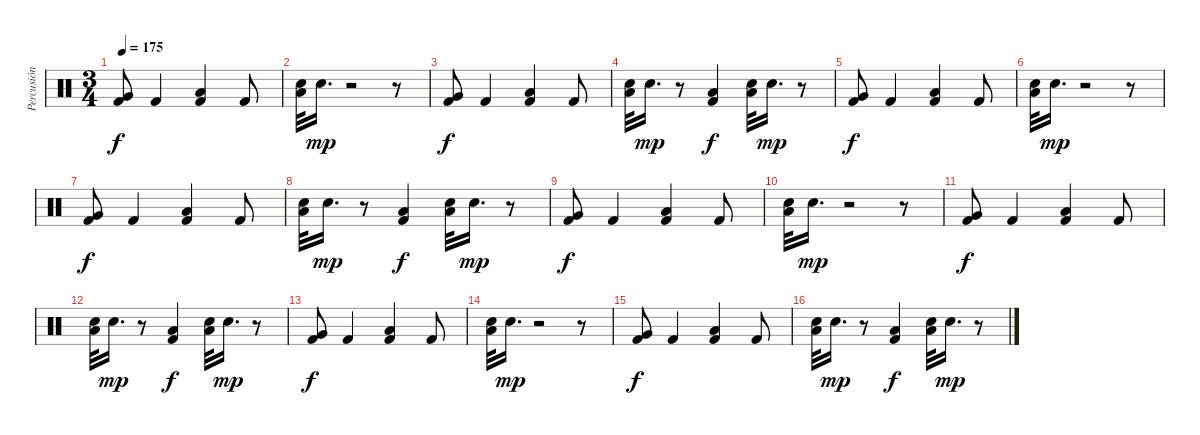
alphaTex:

\track ("Percusión" "Percusión") {instrument percussion}
\staff {score}
\articulation defaults
\ts (3 4)
\tempo 175
\clef neutral
\ks c
("Very Low Tom (hit)" "Kick (hit) 2").8{dy f} "Kick (hit) 2".4 ("Low Tom (hit)" "Kick (hit) 2").4 "Kick (hit) 2".8 |
("Low Floor Tom (hit)" "Snare (hit) 2").32 "Snare (hit) 2".16{d dy mp} r.2 r.8 |
("Very Low Tom (hit)" "Kick (hit) 2").8{dy f} "Kick (hit) 2".4 ("Low Tom (hit)" "Kick (hit) 2").4 "Kick (hit) 2".8 |
("Low Floor Tom (hit)" "Snare (hit) 2").32 "Snare (hit) 2".16{d dy mp} r.8 ("Low Tom (hit)" "Kick (hit) 2").4{dy f} ("Low Floor Tom (hit)" "Snare (hit) 2").32 "Snare (hit) 2".16{d dy mp} r.8 |
("Very Low Tom (hit)" "Kick (hit) 2").8{dy f} "Kick (hit) 2".4 ("Low Tom (hit)" "Kick (hit) 2").4 "Kick (hit) 2".8 |
("Low Floor Tom (hit)" "Snare (hit) 2").32 "Snare (hit) 2".16{d dy mp} r.2 r.8 |
("Very Low Tom (hit)" "Kick (hit) 2").8{dy f} "Kick (hit) 2".4 ("Low Tom (hit)" "Kick (hit) 2").4 "Kick (hit) 2".8 |
("Low Floor Tom (hit)" "Snare (hit) 2").32 "Snare (hit) 2".16{d dy mp} r.8 ("Low Tom (hit)" "Kick (hit) 2").4{dy f} ("Low Floor Tom (hit)" "Snare (hit) 2").32 "Snare (hit) 2".16{d dy mp} r.8 |
("Very Low Tom (hit)" "Kick (hit) 2").8{dy f} "Kick (hit) 2".4 ("Low Tom (hit)" "Kick (hit) 2").4 "Kick (hit) 2".8 |
("Low Floor Tom (hit)" "Snare (hit) 2").32 "Snare (hit) 2".16{d dy mp} r.2 r.8 |
("Very Low Tom (hit)" "Kick (hit) 2").8{dy f} "Kick (hit) 2".4 ("Low Tom (hit)" "Kick (hit) 2").4 "Kick (hit) 2".8 |
("Low Floor Tom (hit)" "Snare (hit) 2").32 "Snare (hit) 2".16{d dy mp} r.8 ("Low Tom (hit)" "Kick (hit) 2").4{dy f} ("Low Floor Tom (hit)" "Snare (hit) 2").32 "Snare (hit) 2".16{d dy mp} r.8 |
("Very Low Tom (hit)" "Kick (hit) 2").8{dy f} "Kick (hit) 2".4 ("Low Tom (hit)" "Kick (hit) 2").4 "Kick (hit) 2".8 |
("Low Floor Tom (hit)" "Snare (hit) 2").32 "Snare (hit) 2".16{d dy mp} r.2 r.8 |
("Very Low Tom (hit)" "Kick (hit) 2").8{dy f} "Kick (hit) 2".4 ("Low Tom (hit)" "Kick (hit) 2").4 "Kick (hit) 2".8 |
("Low Floor Tom (hit)" "Snare (hit) 2").32 "Snare (hit) 2".16{d dy mp} r.8 ("Low Tom (hit)" "Kick (hit) 2").4{dy f} ("Low Floor Tom (hit)" "Snare (hit) 2").32 "Snare (hit) 2".16{d dy mp} r.8
